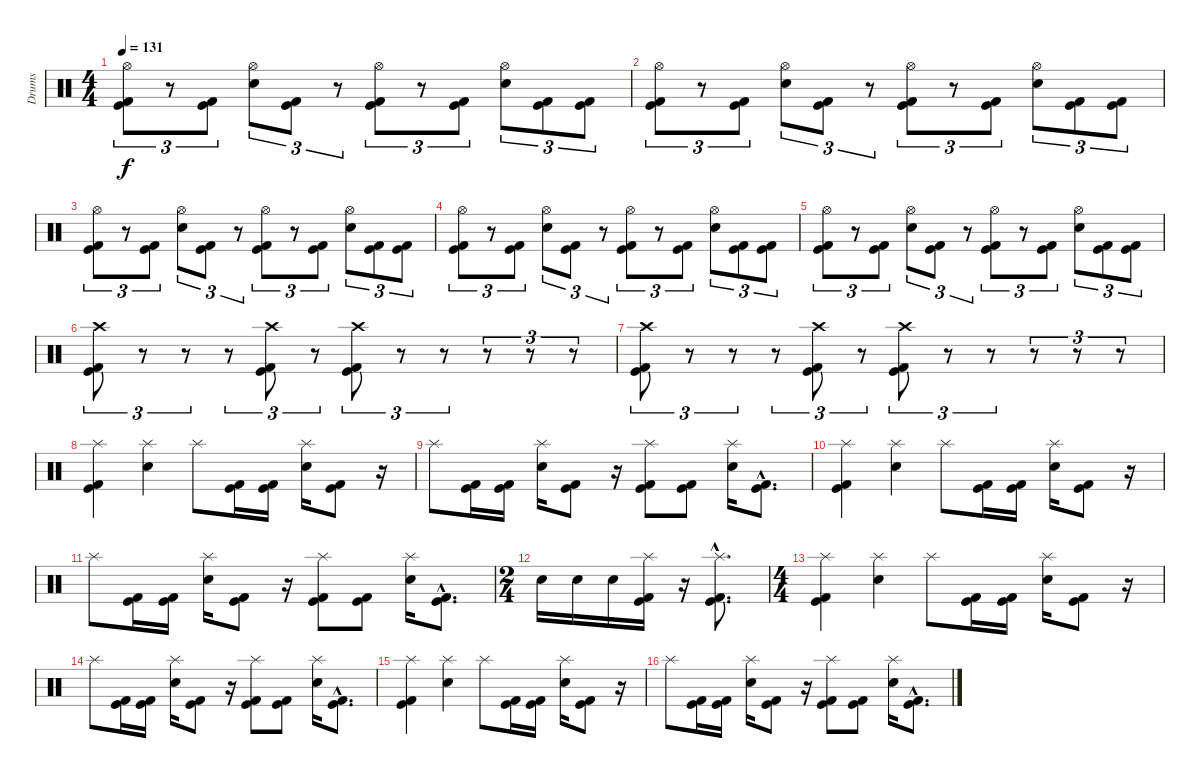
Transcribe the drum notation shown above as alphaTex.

\track ("Drums" "Drums") {instrument percussion}
\staff {score}
\articulation defaults
\ts (4 4)
\tempo 131
\clef neutral
\ks c
("Hi-Hat (open)" "Kick (hit) 2" "Kick (hit)").8{tu (3 2) dy f} r.8{tu (3 2)} ("Kick (hit) 2" "Kick (hit)").8{tu (3 2)} ("Hi-Hat (open)" "Snare (hit) 2").8{tu (3 2)} ("Kick (hit) 2" "Kick (hit)").8{tu (3 2)} r.8{tu (3 2)} ("Hi-Hat (open)" "Kick (hit)" "Kick (hit) 2").8{tu (3 2)} r.8{tu (3 2)} ("Kick (hit)" "Kick (hit) 2").8{tu (3 2)} ("Hi-Hat (open)" "Snare (hit) 2").8{tu (3 2)} ("Kick (hit) 2" "Kick (hit)").8{tu (3 2)} ("Kick (hit)" "Kick (hit) 2").8{tu (3 2)} |
("Hi-Hat (open)" "Kick (hit) 2" "Kick (hit)").8{tu (3 2)} r.8{tu (3 2)} ("Kick (hit) 2" "Kick (hit)").8{tu (3 2)} ("Hi-Hat (open)" "Snare (hit) 2").8{tu (3 2)} ("Kick (hit) 2" "Kick (hit)").8{tu (3 2)} r.8{tu (3 2)} ("Hi-Hat (open)" "Kick (hit)" "Kick (hit) 2").8{tu (3 2)} r.8{tu (3 2)} ("Kick (hit)" "Kick (hit) 2").8{tu (3 2)} ("Hi-Hat (open)" "Snare (hit) 2").8{tu (3 2)} ("Kick (hit) 2" "Kick (hit)").8{tu (3 2)} ("Kick (hit)" "Kick (hit) 2").8{tu (3 2)} |
("Hi-Hat (open)" "Kick (hit) 2" "Kick (hit)").8{tu (3 2)} r.8{tu (3 2)} ("Kick (hit) 2" "Kick (hit)").8{tu (3 2)} ("Hi-Hat (open)" "Snare (hit) 2").8{tu (3 2)} ("Kick (hit) 2" "Kick (hit)").8{tu (3 2)} r.8{tu (3 2)} ("Hi-Hat (open)" "Kick (hit)" "Kick (hit) 2").8{tu (3 2)} r.8{tu (3 2)} ("Kick (hit)" "Kick (hit) 2").8{tu (3 2)} ("Hi-Hat (open)" "Snare (hit) 2").8{tu (3 2)} ("Kick (hit) 2" "Kick (hit)").8{tu (3 2)} ("Kick (hit)" "Kick (hit) 2").8{tu (3 2)} |
("Hi-Hat (open)" "Kick (hit) 2" "Kick (hit)").8{tu (3 2)} r.8{tu (3 2)} ("Kick (hit) 2" "Kick (hit)").8{tu (3 2)} ("Hi-Hat (open)" "Snare (hit) 2").8{tu (3 2)} ("Kick (hit) 2" "Kick (hit)").8{tu (3 2)} r.8{tu (3 2)} ("Hi-Hat (open)" "Kick (hit)" "Kick (hit) 2").8{tu (3 2)} r.8{tu (3 2)} ("Kick (hit)" "Kick (hit) 2").8{tu (3 2)} ("Hi-Hat (open)" "Snare (hit) 2").8{tu (3 2)} ("Kick (hit) 2" "Kick (hit)").8{tu (3 2)} ("Kick (hit)" "Kick (hit) 2").8{tu (3 2)} |
("Hi-Hat (open)" "Kick (hit) 2" "Kick (hit)").8{tu (3 2)} r.8{tu (3 2)} ("Kick (hit) 2" "Kick (hit)").8{tu (3 2)} ("Hi-Hat (open)" "Snare (hit) 2").8{tu (3 2)} ("Kick (hit) 2" "Kick (hit)").8{tu (3 2)} r.8{tu (3 2)} ("Hi-Hat (open)" "Kick (hit)" "Kick (hit) 2").8{tu (3 2)} r.8{tu (3 2)} ("Kick (hit)" "Kick (hit) 2").8{tu (3 2)} ("Hi-Hat (open)" "Snare (hit) 2").8{tu (3 2)} ("Kick (hit) 2" "Kick (hit)").8{tu (3 2)} ("Kick (hit)" "Kick (hit) 2").8{tu (3 2)} |
("Crash high (hit)" "Kick (hit) 2" "Kick (hit)").8{tu (3 2)} r.8{tu (3 2)} r.8{tu (3 2)} r.8{tu (3 2)} ("Crash high (hit)" "Kick (hit) 2" "Kick (hit)").8{tu (3 2)} r.8{tu (3 2)} ("Crash high (hit)" "Kick (hit)" "Kick (hit) 2").8{tu (3 2)} r.8{tu (3 2)} r.8{tu (3 2)} r.8{tu (3 2)} r.8{tu (3 2)} r.8{tu (3 2)} |
("Crash high (hit)" "Kick (hit) 2" "Kick (hit)").8{tu (3 2)} r.8{tu (3 2)} r.8{tu (3 2)} r.8{tu (3 2)} ("Crash high (hit)" "Kick (hit) 2" "Kick (hit)").8{tu (3 2)} r.8{tu (3 2)} ("Crash high (hit)" "Kick (hit)" "Kick (hit) 2").8{tu (3 2)} r.8{tu (3 2)} r.8{tu (3 2)} r.8{tu (3 2)} r.8{tu (3 2)} r.8{tu (3 2)} |
("Splash (hit)" "Kick (hit) 2" "Kick (hit)").4 ("Splash (hit)" "Snare (hit) 2").4 "Splash (hit)".8 ("Kick (hit) 2" "Kick (hit)").16 ("Kick (hit)" "Kick (hit) 2").16 ("Splash (hit)" "Snare (hit) 2").16 ("Kick (hit)" "Kick (hit) 2").8 r.16 |
"Splash (hit)".8 ("Kick (hit)" "Kick (hit) 2").16 ("Kick (hit) 2" "Kick (hit)").16 ("Splash (hit)" "Snare (hit) 2").16 ("Kick (hit) 2" "Kick (hit)").8 r.16 ("Splash (hit)" "Kick (hit) 2" "Kick (hit)").8 ("Kick (hit) 2" "Kick (hit)").8 ("Splash (hit)" "Snare (hit) 2").16 ("Kick (hit) 2"{hac} "Kick (hit)"{hac}).8{d} |
("Splash (hit)" "Kick (hit) 2" "Kick (hit)").4 ("Splash (hit)" "Snare (hit) 2").4 "Splash (hit)".8 ("Kick (hit) 2" "Kick (hit)").16 ("Kick (hit)" "Kick (hit) 2").16 ("Splash (hit)" "Snare (hit) 2").16 ("Kick (hit)" "Kick (hit) 2").8 r.16 |
"Splash (hit)".8 ("Kick (hit)" "Kick (hit) 2").16 ("Kick (hit) 2" "Kick (hit)").16 ("Splash (hit)" "Snare (hit) 2").16 ("Kick (hit) 2" "Kick (hit)").8 r.16 ("Splash (hit)" "Kick (hit) 2" "Kick (hit)").8 ("Kick (hit) 2" "Kick (hit)").8 ("Splash (hit)" "Snare (hit) 2").16 ("Kick (hit) 2"{hac} "Kick (hit)"{hac}).8{d} |
\ts (2 4)
"Snare (hit) 2".16 "Snare (hit) 2".16 "Snare (hit) 2".16 ("Splash (hit)" "Kick (hit)" "Kick (hit) 2").16 r.16 ("Splash (hit)"{hac} "Kick (hit)"{hac} "Kick (hit) 2"{hac}).8{d} |
\ts (4 4)
("Splash (hit)" "Kick (hit) 2" "Kick (hit)").4 ("Splash (hit)" "Snare (hit) 2").4 "Splash (hit)".8 ("Kick (hit) 2" "Kick (hit)").16 ("Kick (hit)" "Kick (hit) 2").16 ("Splash (hit)" "Snare (hit) 2").16 ("Kick (hit)" "Kick (hit) 2").8 r.16 |
"Splash (hit)".8 ("Kick (hit)" "Kick (hit) 2").16 ("Kick (hit) 2" "Kick (hit)").16 ("Splash (hit)" "Snare (hit) 2").16 ("Kick (hit) 2" "Kick (hit)").8 r.16 ("Splash (hit)" "Kick (hit) 2" "Kick (hit)").8 ("Kick (hit) 2" "Kick (hit)").8 ("Splash (hit)" "Snare (hit) 2").16 ("Kick (hit) 2"{hac} "Kick (hit)"{hac}).8{d} |
("Splash (hit)" "Kick (hit) 2" "Kick (hit)").4 ("Splash (hit)" "Snare (hit) 2").4 "Splash (hit)".8 ("Kick (hit) 2" "Kick (hit)").16 ("Kick (hit)" "Kick (hit) 2").16 ("Splash (hit)" "Snare (hit) 2").16 ("Kick (hit)" "Kick (hit) 2").8 r.16 |
"Splash (hit)".8 ("Kick (hit)" "Kick (hit) 2").16 ("Kick (hit) 2" "Kick (hit)").16 ("Splash (hit)" "Snare (hit) 2").16 ("Kick (hit) 2" "Kick (hit)").8 r.16 ("Splash (hit)" "Kick (hit) 2" "Kick (hit)").8 ("Kick (hit) 2" "Kick (hit)").8 ("Splash (hit)" "Snare (hit) 2").16 ("Kick (hit) 2"{hac} "Kick (hit)"{hac}).8{d}
